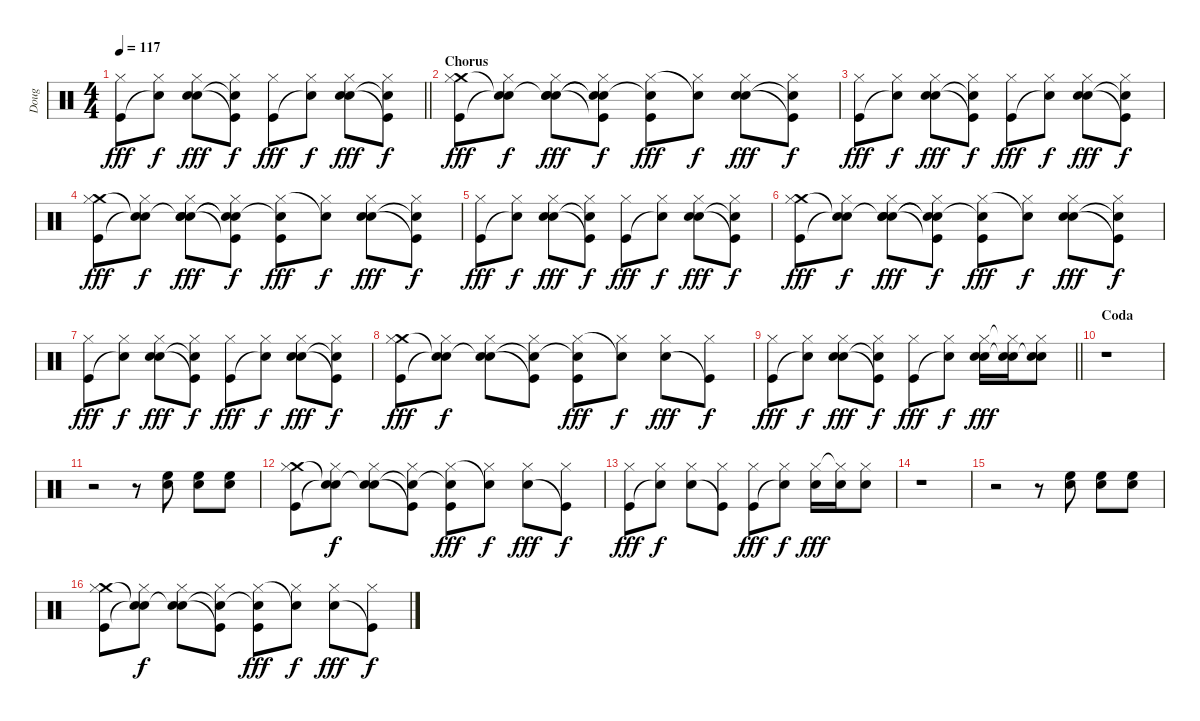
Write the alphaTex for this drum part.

\track ("Doug" "Doug") {instrument percussion}
\staff {score}
\articulation defaults
\ts (4 4)
\tempo 117
\clef neutral
\barLineRight lightlight
\ks c
("Hi-Hat (closed)" "Kick (hit)").8{dy fff} ("Hi-Hat (closed)" "Snare (hit)"{t}).8{dy f} ("Hand Clap (hit)" "Hi-Hat (closed)" "Snare (hit) 2").8{dy fff} ("Snare (hit)"{t} "Hi-Hat (closed)" "Kick (hit)"{t}).8{dy f} ("Hi-Hat (closed)" "Kick (hit)").8{dy fff} ("Hi-Hat (closed)" "Snare (hit)"{t}).8{dy f} ("Hand Clap (hit)" "Hi-Hat (closed)" "Snare (hit) 2").8{dy fff} ("Snare (hit)"{t} "Hi-Hat (closed)" "Kick (hit)"{t}).8{dy f} |
\section ("" "Chorus")
("Crash medium (hit)" "Hi-Hat (closed)" "Kick (hit)").8{dy fff} ("Snare (hit)"{t} "Hi-Hat (closed)" "Snare (hit)"{t}).8{dy f} ("Snare (hit)"{t} "Hi-Hat (closed)" "Snare (hit) 2" "Hand Clap (hit)").8{dy fff} ("Snare (hit)"{t} "Hi-Hat (closed)" "Kick (hit)"{t} "Snare (hit)"{t}).8{dy f} ("Snare (hit)"{t} "Hi-Hat (closed)" "Kick (hit)").8{dy fff} ("Hi-Hat (closed)" "Snare (hit)"{t}).8{dy f} ("Hi-Hat (closed)" "Snare (hit) 2" "Hand Clap (hit)").8{dy fff} ("Hi-Hat (closed)" "Kick (hit)"{t} "Snare (hit)"{t}).8{dy f} |
("Hi-Hat (closed)" "Kick (hit)").8{dy fff} ("Hi-Hat (closed)" "Snare (hit)"{t}).8{dy f} ("Hand Clap (hit)" "Hi-Hat (closed)" "Snare (hit) 2").8{dy fff} ("Snare (hit)"{t} "Hi-Hat (closed)" "Kick (hit)"{t}).8{dy f} ("Hi-Hat (closed)" "Kick (hit)").8{dy fff} ("Hi-Hat (closed)" "Snare (hit)"{t}).8{dy f} ("Hand Clap (hit)" "Hi-Hat (closed)" "Snare (hit) 2").8{dy fff} ("Snare (hit)"{t} "Hi-Hat (closed)" "Kick (hit)"{t}).8{dy f} |
("Crash medium (hit)" "Hi-Hat (closed)" "Kick (hit)").8{dy fff} ("Snare (hit)"{t} "Hi-Hat (closed)" "Snare (hit)"{t}).8{dy f} ("Snare (hit)"{t} "Hi-Hat (closed)" "Snare (hit) 2" "Hand Clap (hit)").8{dy fff} ("Snare (hit)"{t} "Hi-Hat (closed)" "Kick (hit)"{t} "Snare (hit)"{t}).8{dy f} ("Snare (hit)"{t} "Hi-Hat (closed)" "Kick (hit)").8{dy fff} ("Hi-Hat (closed)" "Snare (hit)"{t}).8{dy f} ("Hi-Hat (closed)" "Snare (hit) 2" "Hand Clap (hit)").8{dy fff} ("Hi-Hat (closed)" "Kick (hit)"{t} "Snare (hit)"{t}).8{dy f} |
("Hi-Hat (closed)" "Kick (hit)").8{dy fff} ("Hi-Hat (closed)" "Snare (hit)"{t}).8{dy f} ("Hand Clap (hit)" "Hi-Hat (closed)" "Snare (hit) 2").8{dy fff} ("Snare (hit)"{t} "Hi-Hat (closed)" "Kick (hit)"{t}).8{dy f} ("Hi-Hat (closed)" "Kick (hit)").8{dy fff} ("Hi-Hat (closed)" "Snare (hit)"{t}).8{dy f} ("Hand Clap (hit)" "Hi-Hat (closed)" "Snare (hit) 2").8{dy fff} ("Snare (hit)"{t} "Hi-Hat (closed)" "Kick (hit)"{t}).8{dy f} |
("Crash medium (hit)" "Hi-Hat (closed)" "Kick (hit)").8{dy fff} ("Snare (hit)"{t} "Hi-Hat (closed)" "Snare (hit)"{t}).8{dy f} ("Snare (hit)"{t} "Hi-Hat (closed)" "Snare (hit) 2" "Hand Clap (hit)").8{dy fff} ("Snare (hit)"{t} "Hi-Hat (closed)" "Kick (hit)"{t} "Snare (hit)"{t}).8{dy f} ("Snare (hit)"{t} "Hi-Hat (closed)" "Kick (hit)").8{dy fff} ("Hi-Hat (closed)" "Snare (hit)"{t}).8{dy f} ("Hi-Hat (closed)" "Snare (hit) 2" "Hand Clap (hit)").8{dy fff} ("Hi-Hat (closed)" "Kick (hit)"{t} "Snare (hit)"{t}).8{dy f} |
("Hi-Hat (closed)" "Kick (hit)").8{dy fff} ("Hi-Hat (closed)" "Snare (hit)"{t}).8{dy f} ("Hand Clap (hit)" "Hi-Hat (closed)" "Snare (hit) 2").8{dy fff} ("Snare (hit)"{t} "Hi-Hat (closed)" "Kick (hit)"{t}).8{dy f} ("Hi-Hat (closed)" "Kick (hit)").8{dy fff} ("Hi-Hat (closed)" "Snare (hit)"{t}).8{dy f} ("Hand Clap (hit)" "Hi-Hat (closed)" "Snare (hit) 2").8{dy fff} ("Snare (hit)"{t} "Hi-Hat (closed)" "Kick (hit)"{t}).8{dy f} |
("Crash medium (hit)" "Hi-Hat (closed)" "Kick (hit)").8{dy fff} ("Snare (hit)"{t} "Hi-Hat (closed)" "Snare (hit)"{t}).8{dy f} ("Snare (hit)"{t} "Hi-Hat (closed)" "Snare (hit) 2").8 ("Snare (hit)"{t} "Hi-Hat (closed)" "Kick (hit)"{t}).8 ("Snare (hit)"{t} "Hi-Hat (closed)" "Kick (hit)").8{dy fff} ("Hi-Hat (closed)" "Snare (hit)"{t}).8{dy f} ("Hi-Hat (closed)" "Snare (hit) 2").8{dy fff} ("Hi-Hat (closed)" "Kick (hit)"{t}).8{dy f} |
\barLineRight lightlight
("Hi-Hat (closed)" "Kick (hit)").8{dy fff} ("Hi-Hat (closed)" "Snare (hit)"{t}).8{dy f} ("Hand Clap (hit)" "Hi-Hat (closed)" "Snare (hit) 2").8{dy fff} ("Snare (hit)"{t} "Hi-Hat (closed)" "Kick (hit)"{t}).8{dy f} ("Hi-Hat (closed)" "Kick (hit)").8{dy fff} ("Hi-Hat (closed)" "Snare (hit)"{t}).8{dy f} ("Hand Clap (hit)" "Hi-Hat (closed)" "Snare (hit) 2").16{dy fff} ("Snare (hit)"{t} "Hi-Hat (closed)"{t} "Snare (hit) 2").16 ("Snare (hit)"{t} "Hi-Hat (closed)" "Snare (hit) 2").8 |
\section ("" "Coda")
r.1 |
r.2 r.8 ("High Floor Tom (hit)" "Snare (hit) 2").8 ("High Floor Tom (hit)" "Snare (hit) 2").8 ("High Floor Tom (hit)" "Snare (hit) 2").8 |
("Crash medium (hit)" "Hi-Hat (closed)" "Kick (hit)").8 ("Snare (hit)"{t} "Hi-Hat (closed)" "Snare (hit)"{t}).8{dy f} ("Snare (hit)"{t} "Hi-Hat (closed)" "Snare (hit) 2").8 ("Snare (hit)"{t} "Hi-Hat (closed)" "Kick (hit)"{t}).8 ("Snare (hit)"{t} "Hi-Hat (closed)" "Kick (hit)").8{dy fff} ("Hi-Hat (closed)" "Snare (hit)"{t}).8{dy f} ("Hi-Hat (closed)" "Snare (hit) 2").8{dy fff} ("Hi-Hat (closed)" "Kick (hit)"{t}).8{dy f} |
("Hi-Hat (closed)" "Kick (hit)").8{dy fff} ("Hi-Hat (closed)" "Snare (hit)"{t}).8{dy f} ("Hi-Hat (closed)" "Snare (hit) 2").8 ("Hi-Hat (closed)" "Kick (hit)"{t}).8 ("Hi-Hat (closed)" "Kick (hit)").8{dy fff} ("Hi-Hat (closed)" "Snare (hit)"{t}).8{dy f} ("Hi-Hat (closed)" "Snare (hit) 2").16{dy fff} ("Hi-Hat (closed)"{t} "Snare (hit) 2").16 ("Hi-Hat (closed)" "Snare (hit) 2").8 |
r.1 |
r.2 r.8 ("High Floor Tom (hit)" "Snare (hit) 2").8 ("High Floor Tom (hit)" "Snare (hit) 2").8 ("High Floor Tom (hit)" "Snare (hit) 2").8 |
("Crash medium (hit)" "Hi-Hat (closed)" "Kick (hit)").8 ("Snare (hit)"{t} "Hi-Hat (closed)" "Snare (hit)"{t}).8{dy f} ("Snare (hit)"{t} "Hi-Hat (closed)" "Snare (hit) 2").8 ("Snare (hit)"{t} "Hi-Hat (closed)" "Kick (hit)"{t}).8 ("Snare (hit)"{t} "Hi-Hat (closed)" "Kick (hit)").8{dy fff} ("Hi-Hat (closed)" "Snare (hit)"{t}).8{dy f} ("Hi-Hat (closed)" "Snare (hit) 2").8{dy fff} ("Hi-Hat (closed)" "Kick (hit)"{t}).8{dy f}
